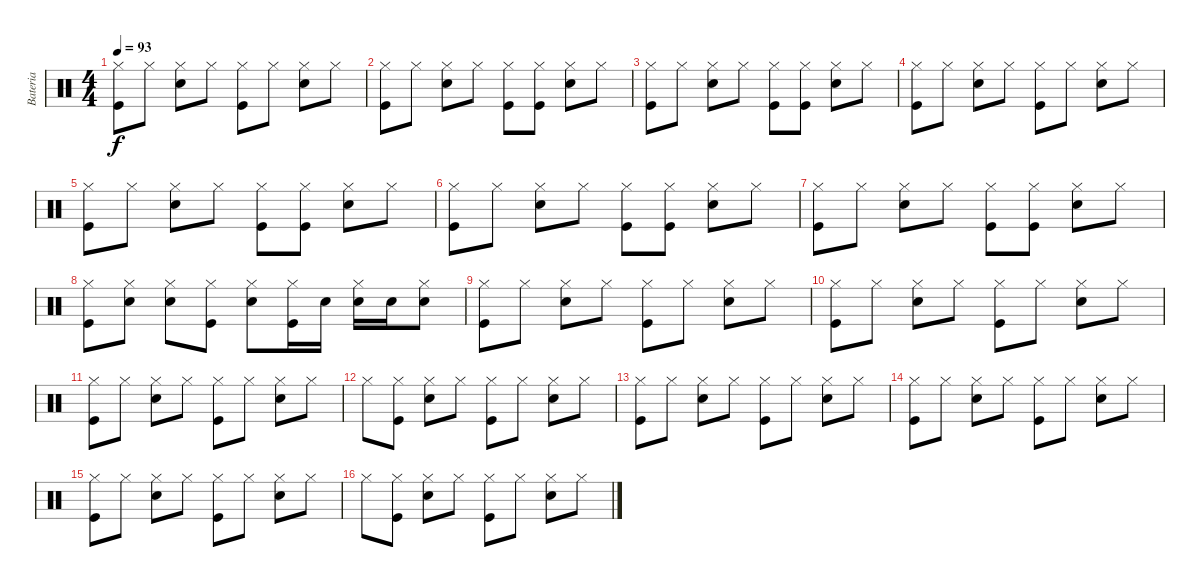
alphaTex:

\track ("Bateria" "Bateria") {instrument percussion}
\staff {score}
\articulation defaults
\ts (4 4)
\tempo 93
\clef neutral
\ks c
("Hi-Hat (closed)" "Kick (hit)").8{dy f} "Hi-Hat (closed)".8 ("Hi-Hat (closed)" "Snare (hit) 2").8 "Hi-Hat (closed)".8 ("Hi-Hat (closed)" "Kick (hit)").8 "Hi-Hat (closed)".8 ("Hi-Hat (closed)" "Snare (hit) 2").8 "Hi-Hat (closed)".8 |
("Hi-Hat (closed)" "Kick (hit)").8 "Hi-Hat (closed)".8 ("Hi-Hat (closed)" "Snare (hit) 2").8 "Hi-Hat (closed)".8 ("Hi-Hat (closed)" "Kick (hit)").8 ("Hi-Hat (closed)" "Kick (hit)").8 ("Hi-Hat (closed)" "Snare (hit) 2").8 "Hi-Hat (closed)".8 |
("Hi-Hat (closed)" "Kick (hit)").8 "Hi-Hat (closed)".8 ("Hi-Hat (closed)" "Snare (hit) 2").8 "Hi-Hat (closed)".8 ("Hi-Hat (closed)" "Kick (hit)").8 ("Hi-Hat (closed)" "Kick (hit)").8 ("Hi-Hat (closed)" "Snare (hit) 2").8 "Hi-Hat (closed)".8 |
("Hi-Hat (closed)" "Kick (hit)").8 "Hi-Hat (closed)".8 ("Hi-Hat (closed)" "Snare (hit) 2").8 "Hi-Hat (closed)".8 ("Hi-Hat (closed)" "Kick (hit)").8 "Hi-Hat (closed)".8 ("Hi-Hat (closed)" "Snare (hit) 2").8 "Hi-Hat (closed)".8 |
("Hi-Hat (closed)" "Kick (hit)").8 "Hi-Hat (closed)".8 ("Hi-Hat (closed)" "Snare (hit) 2").8 "Hi-Hat (closed)".8 ("Hi-Hat (closed)" "Kick (hit)").8 ("Hi-Hat (closed)" "Kick (hit)").8 ("Hi-Hat (closed)" "Snare (hit) 2").8 "Hi-Hat (closed)".8 |
("Hi-Hat (closed)" "Kick (hit)").8 "Hi-Hat (closed)".8 ("Hi-Hat (closed)" "Snare (hit) 2").8 "Hi-Hat (closed)".8 ("Hi-Hat (closed)" "Kick (hit)").8 ("Hi-Hat (closed)" "Kick (hit)").8 ("Hi-Hat (closed)" "Snare (hit) 2").8 "Hi-Hat (closed)".8 |
("Hi-Hat (closed)" "Kick (hit)").8 "Hi-Hat (closed)".8 ("Hi-Hat (closed)" "Snare (hit) 2").8 "Hi-Hat (closed)".8 ("Hi-Hat (closed)" "Kick (hit)").8 ("Hi-Hat (closed)" "Kick (hit)").8 ("Hi-Hat (closed)" "Snare (hit) 2").8 "Hi-Hat (closed)".8 |
("Hi-Hat (closed)" "Kick (hit)").8 ("Hi-Hat (closed)" "Snare (hit) 2").8 ("Hi-Hat (closed)" "Snare (hit) 2").8 ("Hi-Hat (closed)" "Kick (hit)").8 ("Hi-Hat (closed)" "Snare (hit) 2").8 ("Hi-Hat (closed)" "Kick (hit)").16 "Snare (hit) 2".16 ("Hi-Hat (closed)" "Snare (hit) 2").16 "Snare (hit) 2".16 ("Hi-Hat (closed)" "Snare (hit) 2").8 |
("Hi-Hat (closed)" "Kick (hit)").8 "Hi-Hat (closed)".8 ("Hi-Hat (closed)" "Snare (hit) 2").8 "Hi-Hat (closed)".8 ("Hi-Hat (closed)" "Kick (hit)").8 "Hi-Hat (closed)".8 ("Hi-Hat (closed)" "Snare (hit) 2").8 "Hi-Hat (closed)".8 |
("Hi-Hat (closed)" "Kick (hit)").8 "Hi-Hat (closed)".8 ("Hi-Hat (closed)" "Snare (hit) 2").8 "Hi-Hat (closed)".8 ("Hi-Hat (closed)" "Kick (hit)").8 "Hi-Hat (closed)".8 ("Hi-Hat (closed)" "Snare (hit) 2").8 "Hi-Hat (closed)".8 |
("Hi-Hat (closed)" "Kick (hit)").8 "Hi-Hat (closed)".8 ("Hi-Hat (closed)" "Snare (hit) 2").8 "Hi-Hat (closed)".8 ("Hi-Hat (closed)" "Kick (hit)").8 "Hi-Hat (closed)".8 ("Hi-Hat (closed)" "Snare (hit) 2").8 "Hi-Hat (closed)".8 |
"Hi-Hat (closed)".8 ("Hi-Hat (closed)" "Kick (hit)").8 ("Hi-Hat (closed)" "Snare (hit) 2").8 "Hi-Hat (closed)".8 ("Hi-Hat (closed)" "Kick (hit)").8 "Hi-Hat (closed)".8 ("Hi-Hat (closed)" "Snare (hit) 2").8 "Hi-Hat (closed)".8 |
("Hi-Hat (closed)" "Kick (hit)").8 "Hi-Hat (closed)".8 ("Hi-Hat (closed)" "Snare (hit) 2").8 "Hi-Hat (closed)".8 ("Hi-Hat (closed)" "Kick (hit)").8 "Hi-Hat (closed)".8 ("Hi-Hat (closed)" "Snare (hit) 2").8 "Hi-Hat (closed)".8 |
("Hi-Hat (closed)" "Kick (hit)").8 "Hi-Hat (closed)".8 ("Hi-Hat (closed)" "Snare (hit) 2").8 "Hi-Hat (closed)".8 ("Hi-Hat (closed)" "Kick (hit)").8 "Hi-Hat (closed)".8 ("Hi-Hat (closed)" "Snare (hit) 2").8 "Hi-Hat (closed)".8 |
("Hi-Hat (closed)" "Kick (hit)").8 "Hi-Hat (closed)".8 ("Hi-Hat (closed)" "Snare (hit) 2").8 "Hi-Hat (closed)".8 ("Hi-Hat (closed)" "Kick (hit)").8 "Hi-Hat (closed)".8 ("Hi-Hat (closed)" "Snare (hit) 2").8 "Hi-Hat (closed)".8 |
"Hi-Hat (closed)".8 ("Hi-Hat (closed)" "Kick (hit)").8 ("Hi-Hat (closed)" "Snare (hit) 2").8 "Hi-Hat (closed)".8 ("Hi-Hat (closed)" "Kick (hit)").8 "Hi-Hat (closed)".8 ("Hi-Hat (closed)" "Snare (hit) 2").8 "Hi-Hat (closed)".8
